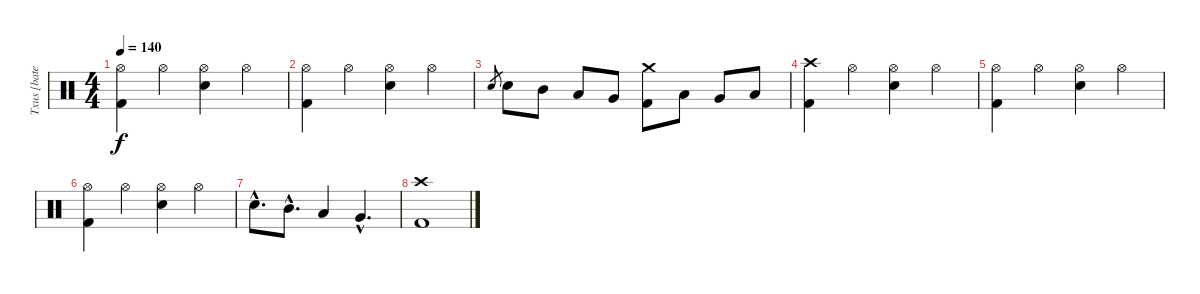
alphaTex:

\track ("Txus [bateria]" "Txus [bate") {instrument percussion}
\staff {score}
\articulation defaults
\ts (4 4)
\tempo 140
\clef neutral
\ks c
("Hi-Hat (open)" "Kick (hit) 2").4{dy f} "Hi-Hat (open)".4 ("Hi-Hat (open)" "Snare (hit) 2").4 "Hi-Hat (open)".4 |
("Hi-Hat (open)" "Kick (hit) 2").4 "Hi-Hat (open)".4 ("Hi-Hat (open)" "Snare (hit) 2").4 "Hi-Hat (open)".4 |
"Snare (hit) 2".8{gr} "Snare (hit) 2".8 "Mid Tom (hit)".8 "Low Tom (hit)".8 "Very Low Tom (hit)".8 ("Crash medium (hit)" "Kick (hit) 2").8 "Low Tom (hit)".8 "Very Low Tom (hit)".8 "Low Floor Tom (hit)".8 |
("Crash high (hit)" "Kick (hit) 2").4 "Hi-Hat (open)".4 ("Hi-Hat (open)" "Snare (hit) 2").4 "Hi-Hat (open)".4 |
("Hi-Hat (open)" "Kick (hit) 2").4 "Hi-Hat (open)".4 ("Hi-Hat (open)" "Snare (hit) 2").4 "Hi-Hat (open)".4 |
("Hi-Hat (open)" "Kick (hit) 2").4 "Hi-Hat (open)".4 ("Hi-Hat (open)" "Snare (hit) 2").4 "Hi-Hat (open)".4 |
"Snare (hit) 2"{hac}.8{d} "Mid Tom (hit)"{hac}.8{d} "Low Tom (hit)".4 "Very Low Tom (hit)"{hac}.4{d} |
("Crash high (hit)" "Kick (hit) 2").1
